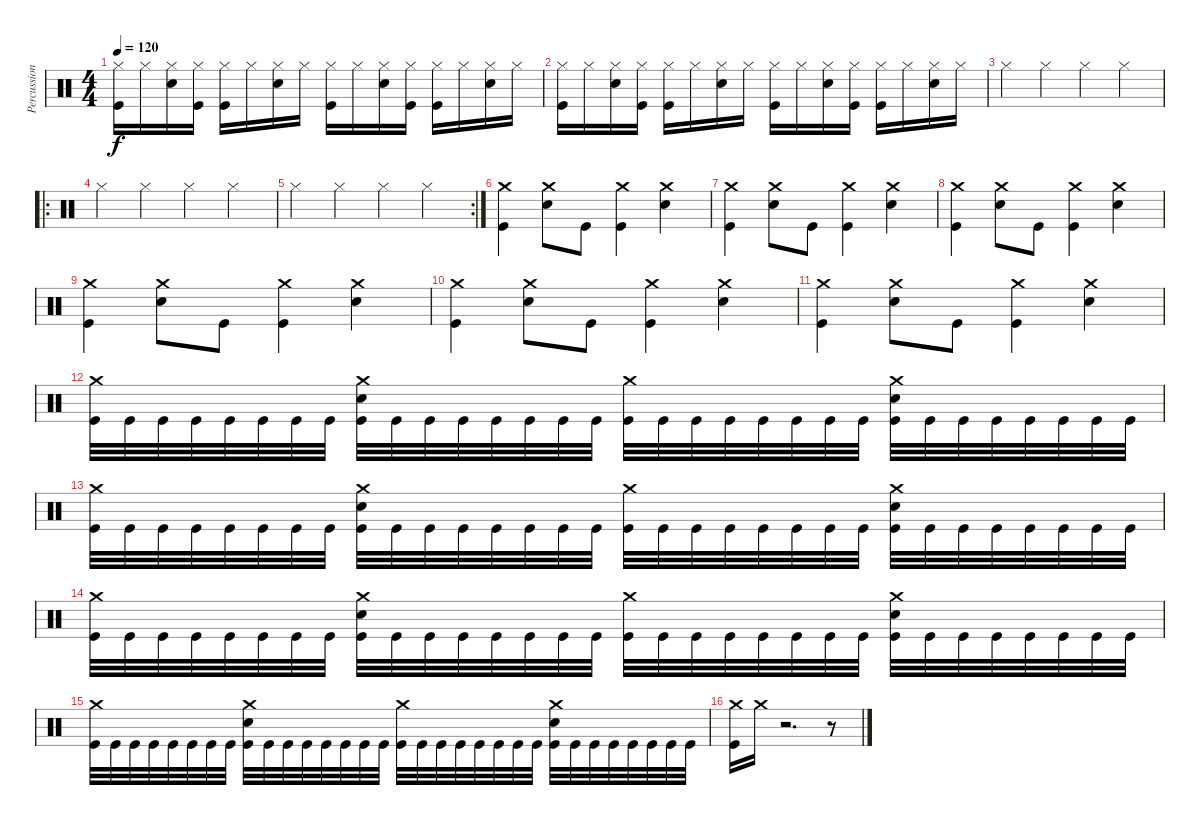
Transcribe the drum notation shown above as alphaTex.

\track ("Percussion" "Percussion") {instrument percussion}
\staff {score}
\articulation defaults
\ts (4 4)
\tempo 120
\clef neutral
\ks c
("Hi-Hat (closed)" "Kick (hit)").16{dy f} "Hi-Hat (closed)".16 ("Hi-Hat (closed)" "Snare (hit) 2").16 ("Hi-Hat (closed)" "Kick (hit)").16 ("Hi-Hat (closed)" "Kick (hit)").16 "Hi-Hat (closed)".16 ("Hi-Hat (closed)" "Snare (hit) 2").16 "Hi-Hat (closed)".16 ("Hi-Hat (closed)" "Kick (hit)").16 "Hi-Hat (closed)".16 ("Hi-Hat (closed)" "Snare (hit) 2").16 ("Hi-Hat (closed)" "Kick (hit)").16 ("Hi-Hat (closed)" "Kick (hit)").16 "Hi-Hat (closed)".16 ("Hi-Hat (closed)" "Snare (hit) 2").16 "Hi-Hat (closed)".16 |
("Hi-Hat (closed)" "Kick (hit)").16 "Hi-Hat (closed)".16 ("Hi-Hat (closed)" "Snare (hit) 2").16 ("Hi-Hat (closed)" "Kick (hit)").16 ("Hi-Hat (closed)" "Kick (hit)").16 "Hi-Hat (closed)".16 ("Hi-Hat (closed)" "Snare (hit) 2").16 "Hi-Hat (closed)".16 ("Hi-Hat (closed)" "Kick (hit)").16 "Hi-Hat (closed)".16 ("Hi-Hat (closed)" "Snare (hit) 2").16 ("Hi-Hat (closed)" "Kick (hit)").16 ("Hi-Hat (closed)" "Kick (hit)").16 "Hi-Hat (closed)".16 ("Hi-Hat (closed)" "Snare (hit) 2").16 "Hi-Hat (closed)".16 |
"Hi-Hat (closed)".4 "Hi-Hat (closed)".4 "Hi-Hat (closed)".4 "Hi-Hat (closed)".4 |
\ro "Hi-Hat (closed)".4 "Hi-Hat (closed)".4 "Hi-Hat (closed)".4 "Hi-Hat (closed)".4
|
\rc 2 "Hi-Hat (closed)".4 "Hi-Hat (closed)".4 "Hi-Hat (closed)".4 "Hi-Hat (closed)".4
|
("Crash medium (hit)" "Kick (hit)").4 ("Crash medium (hit)" "Snare (hit) 2").8 "Kick (hit)".8 ("Crash medium (hit)" "Kick (hit)").4 ("Crash medium (hit)" "Snare (hit) 2").4 |
("Crash medium (hit)" "Kick (hit)").4 ("Crash medium (hit)" "Snare (hit) 2").8 "Kick (hit)".8 ("Crash medium (hit)" "Kick (hit)").4 ("Crash medium (hit)" "Snare (hit) 2").4 |
("Crash medium (hit)" "Kick (hit)").4 ("Crash medium (hit)" "Snare (hit) 2").8 "Kick (hit)".8 ("Crash medium (hit)" "Kick (hit)").4 ("Crash medium (hit)" "Snare (hit) 2").4 |
("Crash medium (hit)" "Kick (hit)").4 ("Crash medium (hit)" "Snare (hit) 2").8 "Kick (hit)".8 ("Crash medium (hit)" "Kick (hit)").4 ("Crash medium (hit)" "Snare (hit) 2").4 |
("Crash medium (hit)" "Kick (hit)").4 ("Crash medium (hit)" "Snare (hit) 2").8 "Kick (hit)".8 ("Crash medium (hit)" "Kick (hit)").4 ("Crash medium (hit)" "Snare (hit) 2").4 |
("Crash medium (hit)" "Kick (hit)").4 ("Crash medium (hit)" "Snare (hit) 2").8 "Kick (hit)".8 ("Crash medium (hit)" "Kick (hit)").4 ("Crash medium (hit)" "Snare (hit) 2").4 |
("Crash medium (hit)" "Kick (hit)").32 "Kick (hit)".32 "Kick (hit)".32 "Kick (hit)".32 "Kick (hit)".32 "Kick (hit)".32 "Kick (hit)".32 "Kick (hit)".32 ("Crash medium (hit)" "Snare (hit) 2" "Kick (hit)").32 "Kick (hit)".32 "Kick (hit)".32 "Kick (hit)".32 "Kick (hit)".32 "Kick (hit)".32 "Kick (hit)".32 "Kick (hit)".32 ("Crash medium (hit)" "Kick (hit)").32 "Kick (hit)".32 "Kick (hit)".32 "Kick (hit)".32 "Kick (hit)".32 "Kick (hit)".32 "Kick (hit)".32 "Kick (hit)".32 ("Crash medium (hit)" "Snare (hit) 2" "Kick (hit)").32 "Kick (hit)".32 "Kick (hit)".32 "Kick (hit)".32 "Kick (hit)".32 "Kick (hit)".32 "Kick (hit)".32 "Kick (hit)".32 |
("Crash medium (hit)" "Kick (hit)").32 "Kick (hit)".32 "Kick (hit)".32 "Kick (hit)".32 "Kick (hit)".32 "Kick (hit)".32 "Kick (hit)".32 "Kick (hit)".32 ("Crash medium (hit)" "Snare (hit) 2" "Kick (hit)").32 "Kick (hit)".32 "Kick (hit)".32 "Kick (hit)".32 "Kick (hit)".32 "Kick (hit)".32 "Kick (hit)".32 "Kick (hit)".32 ("Crash medium (hit)" "Kick (hit)").32 "Kick (hit)".32 "Kick (hit)".32 "Kick (hit)".32 "Kick (hit)".32 "Kick (hit)".32 "Kick (hit)".32 "Kick (hit)".32 ("Crash medium (hit)" "Snare (hit) 2" "Kick (hit)").32 "Kick (hit)".32 "Kick (hit)".32 "Kick (hit)".32 "Kick (hit)".32 "Kick (hit)".32 "Kick (hit)".32 "Kick (hit)".32 |
("Crash medium (hit)" "Kick (hit)").32 "Kick (hit)".32 "Kick (hit)".32 "Kick (hit)".32 "Kick (hit)".32 "Kick (hit)".32 "Kick (hit)".32 "Kick (hit)".32 ("Crash medium (hit)" "Snare (hit) 2" "Kick (hit)").32 "Kick (hit)".32 "Kick (hit)".32 "Kick (hit)".32 "Kick (hit)".32 "Kick (hit)".32 "Kick (hit)".32 "Kick (hit)".32 ("Crash medium (hit)" "Kick (hit)").32 "Kick (hit)".32 "Kick (hit)".32 "Kick (hit)".32 "Kick (hit)".32 "Kick (hit)".32 "Kick (hit)".32 "Kick (hit)".32 ("Crash medium (hit)" "Snare (hit) 2" "Kick (hit)").32 "Kick (hit)".32 "Kick (hit)".32 "Kick (hit)".32 "Kick (hit)".32 "Kick (hit)".32 "Kick (hit)".32 "Kick (hit)".32 |
("Crash medium (hit)" "Kick (hit)").32 "Kick (hit)".32 "Kick (hit)".32 "Kick (hit)".32 "Kick (hit)".32 "Kick (hit)".32 "Kick (hit)".32 "Kick (hit)".32 ("Crash medium (hit)" "Snare (hit) 2" "Kick (hit)").32 "Kick (hit)".32 "Kick (hit)".32 "Kick (hit)".32 "Kick (hit)".32 "Kick (hit)".32 "Kick (hit)".32 "Kick (hit)".32 ("Crash medium (hit)" "Kick (hit)").32 "Kick (hit)".32 "Kick (hit)".32 "Kick (hit)".32 "Kick (hit)".32 "Kick (hit)".32 "Kick (hit)".32 "Kick (hit)".32 ("Crash medium (hit)" "Snare (hit) 2" "Kick (hit)").32 "Kick (hit)".32 "Kick (hit)".32 "Kick (hit)".32 "Kick (hit)".32 "Kick (hit)".32 "Kick (hit)".32 "Kick (hit)".32 |
("Crash medium (hit)" "Kick (hit)").16 "Crash medium (hit)".16{volume 0} r.2{d} r.8
